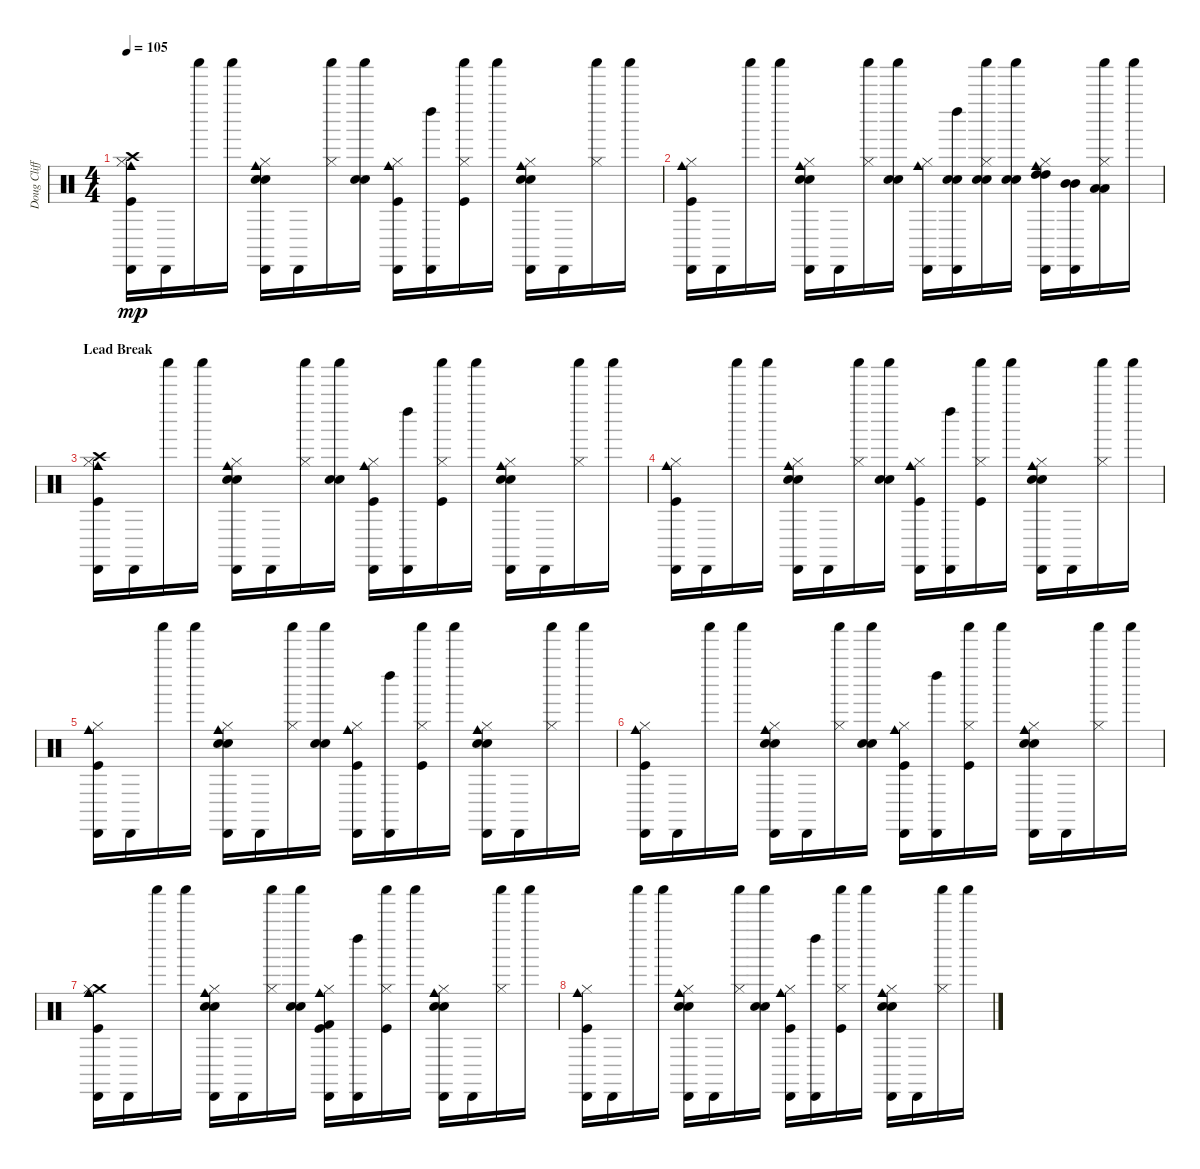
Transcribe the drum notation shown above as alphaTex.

\track ("Doug Clifford" "Doug Cliff") {instrument percussion}
\staff {score}
\articulation defaults
\ts (4 4)
\tempo 105
\clef neutral
\ks c
("Crash high (hit)" "Kick (hit)" "Cowbell medium (hit)" "Cabasa (hit)" "Hi-Hat (closed)").16{dy mp} "Cabasa (hit)".16 "Shaker (hit)".16 "Shaker (hit)".16 ("Snare (hit) 2" "Cabasa (hit)" "Cowbell medium (hit)" "Electric Snare (hit)" "Hi-Hat (closed)").16 "Cabasa (hit)".16 ("Hi-Hat (closed)" "Shaker (hit)").16 ("Snare (hit) 2" "Shaker (hit)" "Electric Snare (hit)").16 ("Cabasa (hit)" "Hi-Hat (closed)" "Kick (hit)" "Cowbell medium (hit)").16 ("Left Maraca (hit)" "Cabasa (hit)").16 ("Kick (hit)" "Shaker (hit)" "Hi-Hat (closed)").16 "Shaker (hit)".16 ("Snare (hit) 2" "Cabasa (hit)" "Electric Snare (hit)" "Cowbell medium (hit)" "Hi-Hat (closed)").16 "Cabasa (hit)".16 ("Shaker (hit)" "Hi-Hat (closed)").16 "Shaker (hit)".16 |
("Kick (hit)" "Cabasa (hit)" "Hi-Hat (closed)" "Cowbell medium (hit)").16 "Cabasa (hit)".16 "Shaker (hit)".16 "Shaker (hit)".16 ("Snare (hit) 2" "Cabasa (hit)" "Cowbell medium (hit)" "Electric Snare (hit)" "Hi-Hat (closed)").16 "Cabasa (hit)".16 ("Shaker (hit)" "Hi-Hat (closed)").16 ("Snare (hit) 2" "Electric Snare (hit)" "Shaker (hit)").16 ("Hi-Hat (closed)" "Cowbell medium (hit)" "Cabasa (hit)").16 ("Snare (hit) 2" "Left Maraca (hit)" "Electric Snare (hit)" "Cabasa (hit)").16 ("Snare (hit) 2" "Shaker (hit)" "Electric Snare (hit)" "Hi-Hat (closed)").16 ("Snare (hit) 2" "Electric Snare (hit)" "Shaker (hit)").16 ("High Tom (hit)" "High Tom (hit)" "Cabasa (hit)" "Cowbell medium (hit)" "Hi-Hat (closed)").16 ("Mid Tom (hit)" "Mid Tom (hit)" "Cabasa (hit)").16 ("Low Tom (hit)" "Low Tom (hit)" "Hi-Hat (closed)" "Shaker (hit)").16 "Shaker (hit)".16 |
\section ("" "Lead Break")
("Crash high (hit)" "Cabasa (hit)" "Cowbell medium (hit)" "Kick (hit)" "Hi-Hat (closed)").16 "Cabasa (hit)".16 "Shaker (hit)".16 "Shaker (hit)".16 ("Snare (hit) 2" "Cabasa (hit)" "Electric Snare (hit)" "Cowbell medium (hit)" "Hi-Hat (closed)").16 "Cabasa (hit)".16 ("Shaker (hit)" "Hi-Hat (closed)").16 ("Snare (hit) 2" "Electric Snare (hit)" "Shaker (hit)").16 ("Cowbell medium (hit)" "Cabasa (hit)" "Hi-Hat (closed)" "Kick (hit)").16 ("Left Maraca (hit)" "Cabasa (hit)").16 ("Shaker (hit)" "Hi-Hat (closed)" "Kick (hit)").16 "Shaker (hit)".16 ("Snare (hit) 2" "Electric Snare (hit)" "Cowbell medium (hit)" "Cabasa (hit)" "Hi-Hat (closed)").16 "Cabasa (hit)".16 ("Hi-Hat (closed)" "Shaker (hit)").16 "Shaker (hit)".16 |
("Cabasa (hit)" "Cowbell medium (hit)" "Kick (hit)" "Hi-Hat (closed)").16 "Cabasa (hit)".16 "Shaker (hit)".16 "Shaker (hit)".16 ("Snare (hit) 2" "Cowbell medium (hit)" "Cabasa (hit)" "Electric Snare (hit)" "Hi-Hat (closed)").16 "Cabasa (hit)".16 ("Shaker (hit)" "Hi-Hat (closed)").16 ("Snare (hit) 2" "Electric Snare (hit)" "Shaker (hit)").16 ("Cowbell medium (hit)" "Kick (hit)" "Cabasa (hit)" "Hi-Hat (closed)").16 ("Left Maraca (hit)" "Cabasa (hit)").16 ("Kick (hit)" "Hi-Hat (closed)" "Shaker (hit)").16 "Shaker (hit)".16 ("Snare (hit) 2" "Cabasa (hit)" "Electric Snare (hit)" "Cowbell medium (hit)" "Hi-Hat (closed)").16 "Cabasa (hit)".16 ("Shaker (hit)" "Hi-Hat (closed)").16 "Shaker (hit)".16 |
("Cowbell medium (hit)" "Kick (hit)" "Cabasa (hit)" "Hi-Hat (closed)").16 "Cabasa (hit)".16 "Shaker (hit)".16 "Shaker (hit)".16 ("Snare (hit) 2" "Cabasa (hit)" "Electric Snare (hit)" "Cowbell medium (hit)" "Hi-Hat (closed)").16 "Cabasa (hit)".16 ("Hi-Hat (closed)" "Shaker (hit)").16 ("Snare (hit) 2" "Shaker (hit)" "Electric Snare (hit)").16 ("Cabasa (hit)" "Cowbell medium (hit)" "Hi-Hat (closed)" "Kick (hit)").16 ("Left Maraca (hit)" "Cabasa (hit)").16 ("Kick (hit)" "Shaker (hit)" "Hi-Hat (closed)").16 "Shaker (hit)".16 ("Snare (hit) 2" "Cowbell medium (hit)" "Cabasa (hit)" "Electric Snare (hit)" "Hi-Hat (closed)").16 "Cabasa (hit)".16 ("Hi-Hat (closed)" "Shaker (hit)").16 "Shaker (hit)".16 |
("Kick (hit)" "Cabasa (hit)" "Cowbell medium (hit)" "Hi-Hat (closed)").16 "Cabasa (hit)".16 "Shaker (hit)".16 "Shaker (hit)".16 ("Snare (hit) 2" "Electric Snare (hit)" "Cowbell medium (hit)" "Cabasa (hit)" "Hi-Hat (closed)").16 "Cabasa (hit)".16 ("Shaker (hit)" "Hi-Hat (closed)").16 ("Snare (hit) 2" "Electric Snare (hit)" "Shaker (hit)").16 ("Cabasa (hit)" "Kick (hit)" "Hi-Hat (closed)" "Cowbell medium (hit)").16 ("Left Maraca (hit)" "Cabasa (hit)").16 ("Hi-Hat (closed)" "Shaker (hit)" "Kick (hit)").16 "Shaker (hit)".16 ("Snare (hit) 2" "Electric Snare (hit)" "Cabasa (hit)" "Cowbell medium (hit)" "Hi-Hat (closed)").16 "Cabasa (hit)".16 ("Hi-Hat (closed)" "Shaker (hit)").16 "Shaker (hit)".16 |
("Crash medium (hit)" "Cowbell medium (hit)" "Kick (hit)" "Cabasa (hit)" "Hi-Hat (closed)").16 "Cabasa (hit)".16 "Shaker (hit)".16 "Shaker (hit)".16 ("Snare (hit) 2" "Electric Snare (hit)" "Cabasa (hit)" "Cowbell medium (hit)" "Hi-Hat (closed)").16 "Cabasa (hit)".16 ("Hi-Hat (closed)" "Shaker (hit)").16 ("Snare (hit) 2" "Electric Snare (hit)" "Shaker (hit)").16 ("Kick (hit) 2" "Kick (hit)" "Hi-Hat (closed)" "Cowbell medium (hit)" "Cabasa (hit)").16 ("Left Maraca (hit)" "Cabasa (hit)").16 ("Kick (hit)" "Hi-Hat (closed)" "Shaker (hit)").16 "Shaker (hit)".16 ("Snare (hit) 2" "Cowbell medium (hit)" "Electric Snare (hit)" "Cabasa (hit)" "Hi-Hat (closed)").16 "Cabasa (hit)".16 ("Hi-Hat (closed)" "Shaker (hit)").16 "Shaker (hit)".16 |
("Kick (hit)" "Cowbell medium (hit)" "Cabasa (hit)" "Hi-Hat (closed)").16 "Cabasa (hit)".16 "Shaker (hit)".16 "Shaker (hit)".16 ("Snare (hit) 2" "Electric Snare (hit)" "Cowbell medium (hit)" "Cabasa (hit)" "Hi-Hat (closed)").16 "Cabasa (hit)".16 ("Shaker (hit)" "Hi-Hat (closed)").16 ("Snare (hit) 2" "Shaker (hit)" "Electric Snare (hit)").16 ("Hi-Hat (closed)" "Kick (hit)" "Cabasa (hit)" "Cowbell medium (hit)").16 ("Left Maraca (hit)" "Cabasa (hit)").16 ("Shaker (hit)" "Hi-Hat (closed)" "Kick (hit)").16 "Shaker (hit)".16 ("Snare (hit) 2" "Cowbell medium (hit)" "Cabasa (hit)" "Electric Snare (hit)" "Hi-Hat (closed)").16 "Cabasa (hit)".16 ("Shaker (hit)" "Hi-Hat (closed)").16 "Shaker (hit)".16
